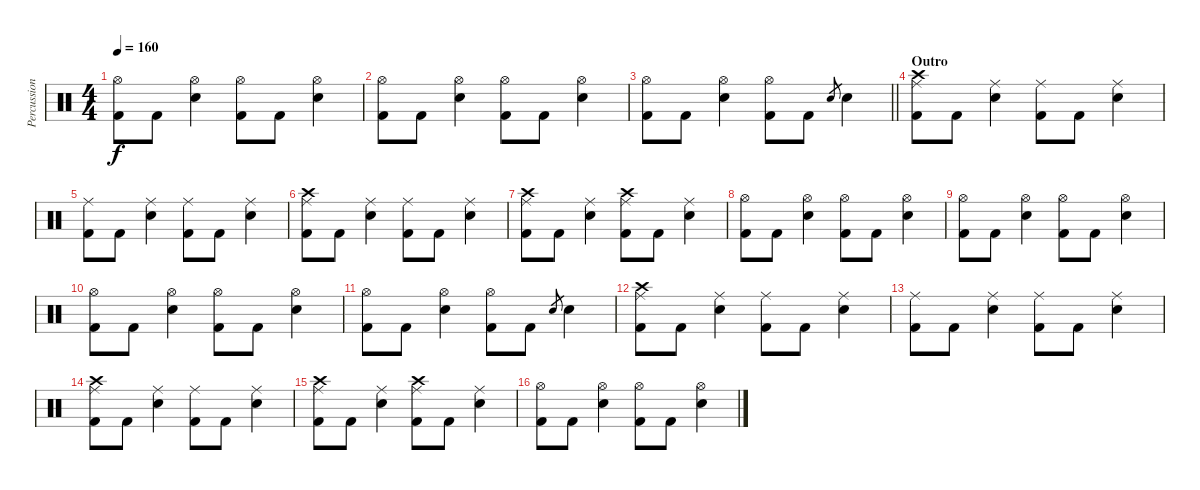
\track ("Percussion" "Percussion") {instrument percussion}
\staff {score}
\articulation defaults
\ts (4 4)
\tempo 160
\clef neutral
\ks c
("Hi-Hat (open)" "Kick (hit) 2").8{dy f} "Kick (hit) 2".8 ("Hi-Hat (open)" "Snare (hit) 2").4 ("Hi-Hat (open)" "Kick (hit) 2").8 "Kick (hit) 2".8 ("Hi-Hat (open)" "Snare (hit) 2").4 |
("Hi-Hat (open)" "Kick (hit) 2").8 "Kick (hit) 2".8 ("Hi-Hat (open)" "Snare (hit) 2").4 ("Hi-Hat (open)" "Kick (hit) 2").8 "Kick (hit) 2".8 ("Hi-Hat (open)" "Snare (hit) 2").4 |
\barLineRight lightlight
("Hi-Hat (open)" "Kick (hit) 2").8 "Kick (hit) 2".8 ("Hi-Hat (open)" "Snare (hit) 2").4 ("Hi-Hat (open)" "Kick (hit) 2").8 "Kick (hit) 2".8 "Snare (hit) 2".8{gr} "Snare (hit) 2".4 |
\section ("" "Outro")
("Ride (middle)" "Crash high (hit)" "Kick (hit) 2").8 "Kick (hit) 2".8 ("Ride (middle)" "Snare (hit) 2").4 ("Ride (middle)" "Kick (hit) 2").8 "Kick (hit) 2".8 ("Ride (middle)" "Snare (hit) 2").4 |
("Ride (middle)" "Kick (hit) 2").8 "Kick (hit) 2".8 ("Ride (middle)" "Snare (hit) 2").4 ("Ride (middle)" "Kick (hit) 2").8 "Kick (hit) 2".8 ("Ride (middle)" "Snare (hit) 2").4 |
("Ride (middle)" "Crash high (hit)" "Kick (hit) 2").8 "Kick (hit) 2".8 ("Ride (middle)" "Snare (hit) 2").4 ("Ride (middle)" "Kick (hit) 2").8 "Kick (hit) 2".8 ("Ride (middle)" "Snare (hit) 2").4 |
("Ride (middle)" "Crash high (hit)" "Kick (hit) 2").8 "Kick (hit) 2".8 ("Ride (middle)" "Snare (hit) 2").4 ("Ride (middle)" "Crash high (hit)" "Kick (hit) 2").8 "Kick (hit) 2".8 ("Ride (middle)" "Snare (hit) 2").4 |
("Hi-Hat (open)" "Kick (hit) 2").8 "Kick (hit) 2".8 ("Hi-Hat (open)" "Snare (hit) 2").4 ("Hi-Hat (open)" "Kick (hit) 2").8 "Kick (hit) 2".8 ("Hi-Hat (open)" "Snare (hit) 2").4 |
("Hi-Hat (open)" "Kick (hit) 2").8 "Kick (hit) 2".8 ("Hi-Hat (open)" "Snare (hit) 2").4 ("Hi-Hat (open)" "Kick (hit) 2").8 "Kick (hit) 2".8 ("Hi-Hat (open)" "Snare (hit) 2").4 |
("Hi-Hat (open)" "Kick (hit) 2").8 "Kick (hit) 2".8 ("Hi-Hat (open)" "Snare (hit) 2").4 ("Hi-Hat (open)" "Kick (hit) 2").8 "Kick (hit) 2".8 ("Hi-Hat (open)" "Snare (hit) 2").4 |
("Hi-Hat (open)" "Kick (hit) 2").8 "Kick (hit) 2".8 ("Hi-Hat (open)" "Snare (hit) 2").4 ("Hi-Hat (open)" "Kick (hit) 2").8 "Kick (hit) 2".8 "Snare (hit) 2".8{gr} "Snare (hit) 2".4 |
("Ride (middle)" "Crash high (hit)" "Kick (hit) 2").8 "Kick (hit) 2".8 ("Ride (middle)" "Snare (hit) 2").4 ("Ride (middle)" "Kick (hit) 2").8 "Kick (hit) 2".8 ("Ride (middle)" "Snare (hit) 2").4 |
("Ride (middle)" "Kick (hit) 2").8 "Kick (hit) 2".8 ("Ride (middle)" "Snare (hit) 2").4 ("Ride (middle)" "Kick (hit) 2").8 "Kick (hit) 2".8 ("Ride (middle)" "Snare (hit) 2").4 |
("Ride (middle)" "Crash high (hit)" "Kick (hit) 2").8 "Kick (hit) 2".8 ("Ride (middle)" "Snare (hit) 2").4 ("Ride (middle)" "Kick (hit) 2").8 "Kick (hit) 2".8 ("Ride (middle)" "Snare (hit) 2").4 |
("Ride (middle)" "Crash high (hit)" "Kick (hit) 2").8 "Kick (hit) 2".8 ("Ride (middle)" "Snare (hit) 2").4 ("Ride (middle)" "Crash high (hit)" "Kick (hit) 2").8 "Kick (hit) 2".8 ("Ride (middle)" "Snare (hit) 2").4 |
("Hi-Hat (open)" "Kick (hit) 2").8 "Kick (hit) 2".8 ("Hi-Hat (open)" "Snare (hit) 2").4 ("Hi-Hat (open)" "Kick (hit) 2").8 "Kick (hit) 2".8 ("Hi-Hat (open)" "Snare (hit) 2").4
